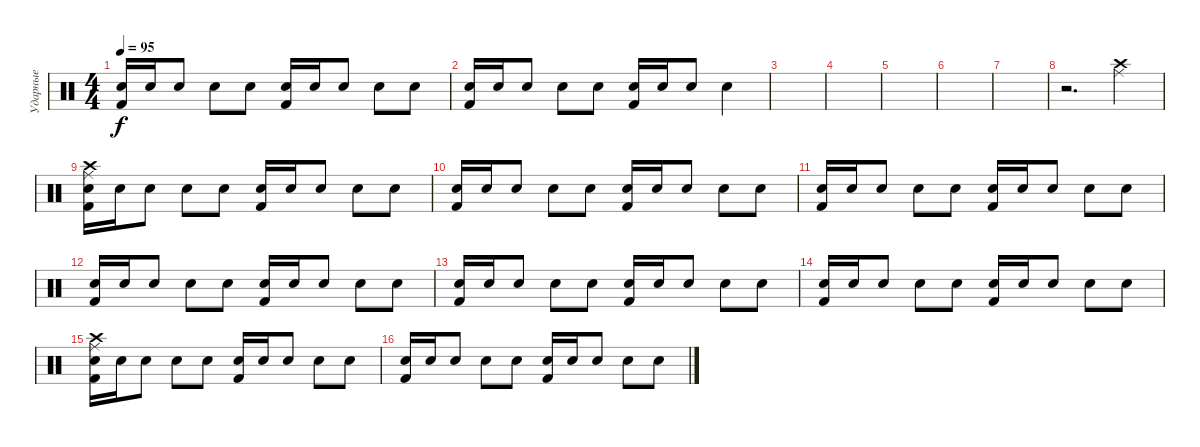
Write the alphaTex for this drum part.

\track ("Ударные" "Ударные") {instrument percussion}
\staff {score}
\articulation defaults
\ts (4 4)
\tempo 95
\clef neutral
\ks c
("Snare (hit) 2" "Kick (hit) 2").16{dy f} "Snare (hit) 2".16 "Snare (hit) 2".8 "Snare (hit) 2".8 "Snare (hit) 2".8 ("Snare (hit) 2" "Kick (hit) 2").16 "Snare (hit) 2".16 "Snare (hit) 2".8 "Snare (hit) 2".8 "Snare (hit)"{x}.8 |
("Snare (hit) 2" "Kick (hit) 2").16 "Snare (hit) 2".16 "Snare (hit) 2".8 "Snare (hit) 2".8 "Snare (hit) 2".8 ("Snare (hit) 2" "Kick (hit) 2").16 "Snare (hit) 2".16 "Snare (hit) 2".8 "Snare (hit) 2".4 |
|
|
|
|
|
r.2{d} ("Ride (middle)" "Crash high (hit)").4 |
("Ride (middle)" "Snare (hit) 2" "Crash high (hit)" "Kick (hit) 2").16 "Snare (hit) 2".16 "Snare (hit) 2".8 "Snare (hit) 2".8 "Snare (hit) 2".8 ("Snare (hit) 2" "Kick (hit) 2").16 "Snare (hit) 2".16 "Snare (hit) 2".8 "Snare (hit) 2".8 "Snare (hit)"{x}.8 |
("Snare (hit) 2" "Kick (hit) 2").16 "Snare (hit) 2".16 "Snare (hit) 2".8 "Snare (hit) 2".8 "Snare (hit) 2".8 ("Snare (hit) 2" "Kick (hit) 2").16 "Snare (hit) 2".16 "Snare (hit) 2".8 "Snare (hit) 2".8 "Snare (hit)"{x}.8 |
("Snare (hit) 2" "Kick (hit) 2").16 "Snare (hit) 2".16 "Snare (hit) 2".8 "Snare (hit) 2".8 "Snare (hit) 2".8 ("Snare (hit) 2" "Kick (hit) 2").16 "Snare (hit) 2".16 "Snare (hit) 2".8 "Snare (hit) 2".8 "Snare (hit)"{x}.8 |
("Snare (hit) 2" "Kick (hit) 2").16 "Snare (hit) 2".16 "Snare (hit) 2".8 "Snare (hit) 2".8 "Snare (hit) 2".8 ("Snare (hit) 2" "Kick (hit) 2").16 "Snare (hit) 2".16 "Snare (hit) 2".8 "Snare (hit) 2".8 "Snare (hit)"{x}.8 |
("Snare (hit) 2" "Kick (hit) 2").16 "Snare (hit) 2".16 "Snare (hit) 2".8 "Snare (hit) 2".8 "Snare (hit) 2".8 ("Snare (hit) 2" "Kick (hit) 2").16 "Snare (hit) 2".16 "Snare (hit) 2".8 "Snare (hit) 2".8 "Snare (hit)"{x}.8 |
("Snare (hit) 2" "Kick (hit) 2").16 "Snare (hit) 2".16 "Snare (hit) 2".8 "Snare (hit) 2".8 "Snare (hit) 2".8 ("Snare (hit) 2" "Kick (hit) 2").16 "Snare (hit) 2".16 "Snare (hit) 2".8 "Snare (hit) 2".8 "Snare (hit)"{x}.8 |
("Ride (middle)" "Snare (hit) 2" "Crash high (hit)" "Kick (hit) 2").16 "Snare (hit) 2".16 "Snare (hit) 2".8 "Snare (hit) 2".8 "Snare (hit) 2".8 ("Snare (hit) 2" "Kick (hit) 2").16 "Snare (hit) 2".16 "Snare (hit) 2".8 "Snare (hit) 2".8 "Snare (hit)"{x}.8 |
("Snare (hit) 2" "Kick (hit) 2").16 "Snare (hit) 2".16 "Snare (hit) 2".8 "Snare (hit) 2".8 "Snare (hit) 2".8 ("Snare (hit) 2" "Kick (hit) 2").16 "Snare (hit) 2".16 "Snare (hit) 2".8 "Snare (hit) 2".8 "Snare (hit)"{x}.8
